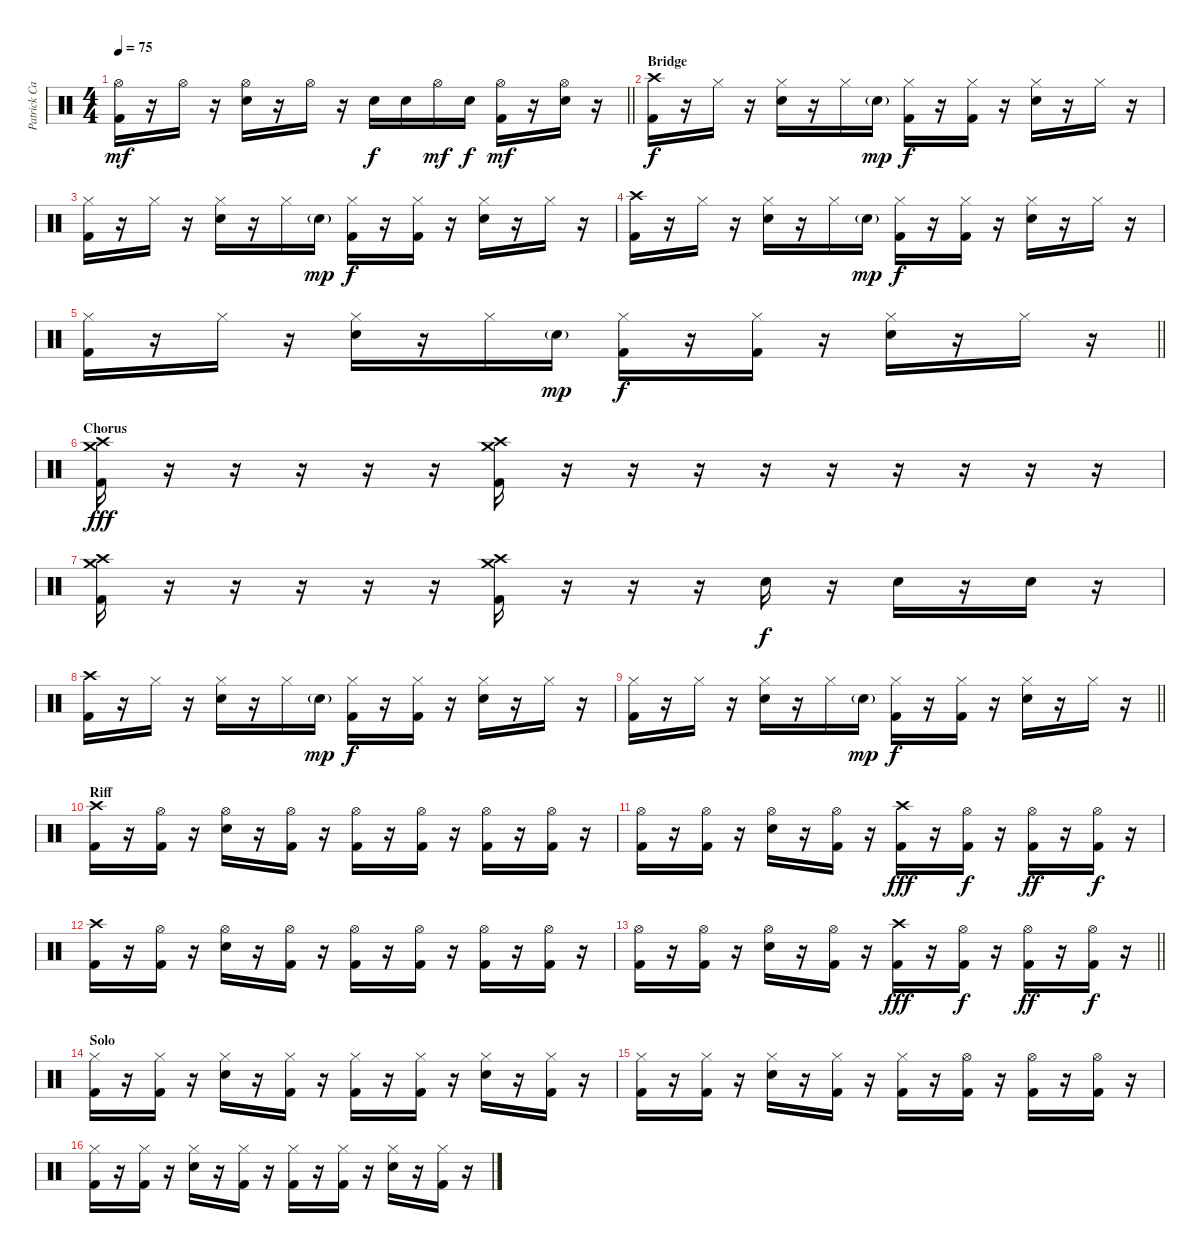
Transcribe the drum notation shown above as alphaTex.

\track ("Patrick Carney - Drums" "Patrick Ca") {instrument percussion}
\staff {score}
\articulation defaults
\ts (4 4)
\tempo 75
\clef neutral
\barLineRight lightlight
\ks c
("Hi-Hat (open)" "Kick (hit) 2").16{dy mf} r.16 "Hi-Hat (open)".16 r.16 ("Hi-Hat (open)" "Electric Snare (hit)").16 r.16 "Hi-Hat (open)".16 r.16 "Electric Snare (hit)".16{dy f} "Electric Snare (hit)".16 "Hi-Hat (open)".16{dy mf} "Electric Snare (hit)".16{dy f} ("Hi-Hat (open)" "Kick (hit) 2").16{dy mf} r.16 ("Hi-Hat (open)" "Electric Snare (hit)").16 r.16 |
\section ("" "Bridge")
("Crash high (hit)" "Kick (hit) 2").16{dy f} r.16 "Hi-Hat (closed)".16 r.16 ("Hi-Hat (closed)" "Electric Snare (hit)").16 r.16 "Hi-Hat (closed)".16 "Electric Snare (hit)"{g}.16{dy mp} ("Hi-Hat (closed)" "Kick (hit) 2").16{dy f} r.16 ("Hi-Hat (closed)" "Kick (hit) 2").16 r.16 ("Hi-Hat (closed)" "Electric Snare (hit)").16 r.16 "Hi-Hat (closed)".16 r.16 |
("Hi-Hat (closed)" "Kick (hit) 2").16 r.16 "Hi-Hat (closed)".16 r.16 ("Hi-Hat (closed)" "Electric Snare (hit)").16 r.16 "Hi-Hat (closed)".16 "Electric Snare (hit)"{g}.16{dy mp} ("Hi-Hat (closed)" "Kick (hit) 2").16{dy f} r.16 ("Hi-Hat (closed)" "Kick (hit) 2").16 r.16 ("Hi-Hat (closed)" "Electric Snare (hit)").16 r.16 "Hi-Hat (closed)".16 r.16 |
("Crash high (hit)" "Kick (hit) 2").16 r.16 "Hi-Hat (closed)".16 r.16 ("Hi-Hat (closed)" "Electric Snare (hit)").16 r.16 "Hi-Hat (closed)".16 "Electric Snare (hit)"{g}.16{dy mp} ("Hi-Hat (closed)" "Kick (hit) 2").16{dy f} r.16 ("Hi-Hat (closed)" "Kick (hit) 2").16 r.16 ("Hi-Hat (closed)" "Electric Snare (hit)").16 r.16 "Hi-Hat (closed)".16 r.16 |
\barLineRight lightlight
("Hi-Hat (closed)" "Kick (hit) 2").16 r.16 "Hi-Hat (closed)".16 r.16 ("Hi-Hat (closed)" "Electric Snare (hit)").16 r.16 "Hi-Hat (closed)".16 "Electric Snare (hit)"{g}.16{dy mp} ("Hi-Hat (closed)" "Kick (hit) 2").16{dy f} r.16 ("Hi-Hat (closed)" "Kick (hit) 2").16 r.16 ("Hi-Hat (closed)" "Electric Snare (hit)").16 r.16 "Hi-Hat (closed)".16 r.16 |
\section ("" "Chorus")
("Crash high (hit)" "Crash medium (hit)" "Kick (hit) 2").16{dy fff} r.16 r.16 r.16 r.16 r.16 ("Crash high (hit)" "Crash medium (hit)" "Kick (hit) 2").16 r.16 r.16 r.16 r.16 r.16 r.16 r.16 r.16 r.16 |
("Crash high (hit)" "Crash medium (hit)" "Kick (hit) 2").16 r.16 r.16 r.16 r.16 r.16 ("Crash high (hit)" "Crash medium (hit)" "Kick (hit) 2").16 r.16 r.16 r.16 "Electric Snare (hit)".16{dy f} r.16 "Electric Snare (hit)".16 r.16 "Electric Snare (hit)".16 r.16 |
("Crash high (hit)" "Kick (hit) 2").16 r.16 "Hi-Hat (closed)".16 r.16 ("Hi-Hat (closed)" "Electric Snare (hit)").16 r.16 "Hi-Hat (closed)".16 "Electric Snare (hit)"{g}.16{dy mp} ("Hi-Hat (closed)" "Kick (hit) 2").16{dy f} r.16 ("Hi-Hat (closed)" "Kick (hit) 2").16 r.16 ("Hi-Hat (closed)" "Electric Snare (hit)").16 r.16 "Hi-Hat (closed)".16 r.16 |
\barLineRight lightlight
("Hi-Hat (closed)" "Kick (hit) 2").16 r.16 "Hi-Hat (closed)".16 r.16 ("Hi-Hat (closed)" "Electric Snare (hit)").16 r.16 "Hi-Hat (closed)".16 "Electric Snare (hit)"{g}.16{dy mp} ("Hi-Hat (closed)" "Kick (hit) 2").16{dy f} r.16 ("Hi-Hat (closed)" "Kick (hit) 2").16 r.16 ("Hi-Hat (closed)" "Electric Snare (hit)").16 r.16 "Hi-Hat (closed)".16 r.16 |
\section ("" "Riff")
("Crash high (hit)" "Kick (hit) 2").16 r.16 ("Hi-Hat (open)" "Kick (hit) 2").16 r.16 ("Hi-Hat (open)" "Electric Snare (hit)").16 r.16 ("Hi-Hat (open)" "Kick (hit) 2").16 r.16 ("Hi-Hat (open)" "Kick (hit) 2").16 r.16 ("Hi-Hat (open)" "Kick (hit) 2").16 r.16 ("Hi-Hat (open)" "Kick (hit) 2").16 r.16 ("Hi-Hat (open)" "Kick (hit) 2").16 r.16 |
("Hi-Hat (open)" "Kick (hit) 2").16 r.16 ("Hi-Hat (open)" "Kick (hit) 2").16 r.16 ("Hi-Hat (open)" "Electric Snare (hit)").16 r.16 ("Hi-Hat (open)" "Kick (hit) 2").16 r.16 ("Crash high (hit)" "Kick (hit) 2").16{dy fff} r.16 ("Hi-Hat (open)" "Kick (hit) 2").16{dy f} r.16 ("Hi-Hat (open)" "Kick (hit) 2").16{dy ff} r.16 ("Hi-Hat (open)" "Kick (hit) 2").16{dy f} r.16 |
("Crash high (hit)" "Kick (hit) 2").16 r.16 ("Hi-Hat (open)" "Kick (hit) 2").16 r.16 ("Hi-Hat (open)" "Electric Snare (hit)").16 r.16 ("Hi-Hat (open)" "Kick (hit) 2").16 r.16 ("Hi-Hat (open)" "Kick (hit) 2").16 r.16 ("Hi-Hat (open)" "Kick (hit) 2").16 r.16 ("Hi-Hat (open)" "Kick (hit) 2").16 r.16 ("Hi-Hat (open)" "Kick (hit) 2").16 r.16 |
\barLineRight lightlight
("Hi-Hat (open)" "Kick (hit) 2").16 r.16 ("Hi-Hat (open)" "Kick (hit) 2").16 r.16 ("Hi-Hat (open)" "Electric Snare (hit)").16 r.16 ("Hi-Hat (open)" "Kick (hit) 2").16 r.16 ("Crash high (hit)" "Kick (hit) 2").16{dy fff} r.16 ("Hi-Hat (open)" "Kick (hit) 2").16{dy f} r.16 ("Hi-Hat (open)" "Kick (hit) 2").16{dy ff} r.16 ("Hi-Hat (open)" "Kick (hit) 2").16{dy f} r.16 |
\section ("" "Solo")
("Hi-Hat (closed)" "Kick (hit) 2").16 r.16 ("Hi-Hat (closed)" "Kick (hit) 2").16 r.16 ("Hi-Hat (closed)" "Electric Snare (hit)").16 r.16 ("Hi-Hat (closed)" "Kick (hit) 2").16 r.16 ("Hi-Hat (closed)" "Kick (hit) 2").16 r.16 ("Hi-Hat (closed)" "Kick (hit) 2").16 r.16 ("Hi-Hat (closed)" "Electric Snare (hit)").16 r.16 ("Hi-Hat (closed)" "Kick (hit) 2").16 r.16 |
("Hi-Hat (closed)" "Kick (hit) 2").16 r.16 ("Hi-Hat (closed)" "Kick (hit) 2").16 r.16 ("Hi-Hat (closed)" "Electric Snare (hit)").16 r.16 ("Hi-Hat (closed)" "Kick (hit) 2").16 r.16 ("Hi-Hat (closed)" "Kick (hit) 2").16 r.16 ("Hi-Hat (open)" "Kick (hit) 2").16 r.16 ("Hi-Hat (open)" "Kick (hit) 2").16 r.16 ("Hi-Hat (open)" "Kick (hit) 2").16 r.16 |
("Hi-Hat (closed)" "Kick (hit) 2").16 r.16 ("Hi-Hat (closed)" "Kick (hit) 2").16 r.16 ("Hi-Hat (closed)" "Electric Snare (hit)").16 r.16 ("Hi-Hat (closed)" "Kick (hit) 2").16 r.16 ("Hi-Hat (closed)" "Kick (hit) 2").16 r.16 ("Hi-Hat (closed)" "Kick (hit) 2").16 r.16 ("Hi-Hat (closed)" "Electric Snare (hit)").16 r.16 ("Hi-Hat (closed)" "Kick (hit) 2").16 r.16
